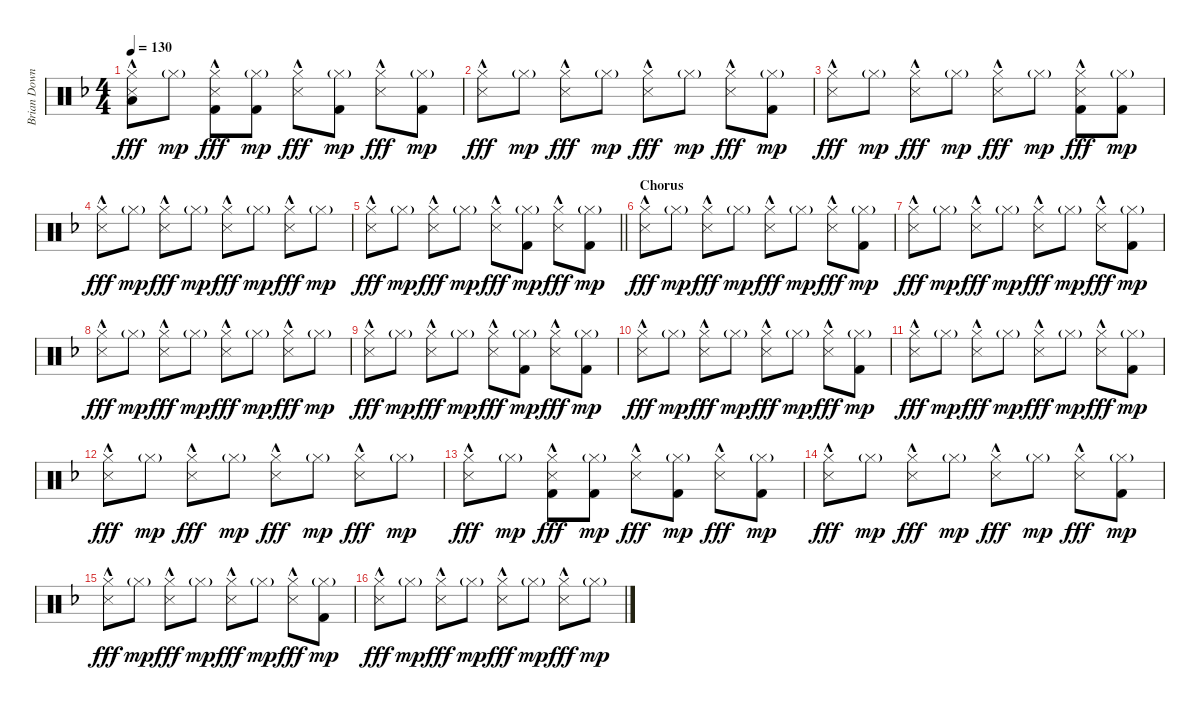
\track ("Brian Downey" "Brian Down") {instrument percussion}
\staff {score}
\articulation defaults
\ts (4 4)
\tempo 130
\clef neutral
\ks dminor
("Hi-Hat (closed)" "Low Tom (hit)" "Metronome (hit)"{hac}).8{dy fff} "Hi-Hat (closed)"{g}.8{dy mp} ("Hi-Hat (closed)" "Metronome (hit)"{hac} "Kick (hit) 2").8{dy fff} ("Hi-Hat (closed)"{g} "Kick (hit) 2").8{dy mp} ("Hi-Hat (closed)" "Metronome (hit)"{hac}).8{dy fff} ("Hi-Hat (closed)"{g} "Kick (hit) 2").8{dy mp} ("Hi-Hat (closed)" "Metronome (hit)"{hac}).8{dy fff} ("Hi-Hat (closed)"{g} "Kick (hit) 2").8{dy mp} |
("Hi-Hat (closed)" "Metronome (hit)"{hac}).8{dy fff} "Hi-Hat (closed)"{g}.8{dy mp} ("Hi-Hat (closed)" "Metronome (hit)"{hac}).8{dy fff} "Hi-Hat (closed)"{g}.8{dy mp} ("Hi-Hat (closed)" "Metronome (hit)"{hac}).8{dy fff} "Hi-Hat (closed)"{g}.8{dy mp} ("Hi-Hat (closed)" "Metronome (hit)"{hac}).8{dy fff} ("Hi-Hat (closed)"{g} "Kick (hit) 2").8{dy mp} |
("Hi-Hat (closed)" "Metronome (hit)"{hac}).8{dy fff} "Hi-Hat (closed)"{g}.8{dy mp} ("Hi-Hat (closed)" "Metronome (hit)"{hac}).8{dy fff} "Hi-Hat (closed)"{g}.8{dy mp} ("Hi-Hat (closed)" "Metronome (hit)"{hac}).8{dy fff} "Hi-Hat (closed)"{g}.8{dy mp} ("Hi-Hat (closed)" "Metronome (hit)"{hac} "Kick (hit) 2").8{dy fff} ("Hi-Hat (closed)"{g} "Kick (hit) 2").8{dy mp} |
("Hi-Hat (closed)" "Metronome (hit)"{hac}).8{dy fff} "Hi-Hat (closed)"{g}.8{dy mp} ("Hi-Hat (closed)" "Metronome (hit)"{hac}).8{dy fff} "Hi-Hat (closed)"{g}.8{dy mp} ("Hi-Hat (closed)" "Metronome (hit)"{hac}).8{dy fff} "Hi-Hat (closed)"{g}.8{dy mp} ("Hi-Hat (closed)" "Metronome (hit)"{hac}).8{dy fff} "Hi-Hat (closed)"{g}.8{dy mp} |
\barLineRight lightlight
("Hi-Hat (closed)" "Metronome (hit)"{hac}).8{dy fff} "Hi-Hat (closed)"{g}.8{dy mp} ("Hi-Hat (closed)" "Metronome (hit)"{hac}).8{dy fff} "Hi-Hat (closed)"{g}.8{dy mp} ("Hi-Hat (closed)" "Metronome (hit)"{hac}).8{dy fff} ("Hi-Hat (closed)"{g} "Kick (hit) 2").8{dy mp} ("Hi-Hat (closed)" "Metronome (hit)"{hac}).8{dy fff} ("Hi-Hat (closed)"{g} "Kick (hit) 2").8{dy mp} |
\section ("" "Chorus")
("Hi-Hat (closed)" "Metronome (hit)"{hac}).8{dy fff} "Hi-Hat (closed)"{g}.8{dy mp} ("Hi-Hat (closed)" "Metronome (hit)"{hac}).8{dy fff} "Hi-Hat (closed)"{g}.8{dy mp} ("Hi-Hat (closed)" "Metronome (hit)"{hac}).8{dy fff} "Hi-Hat (closed)"{g}.8{dy mp} ("Hi-Hat (closed)" "Metronome (hit)"{hac}).8{dy fff} ("Hi-Hat (closed)"{g} "Kick (hit) 2").8{dy mp} |
("Hi-Hat (closed)" "Metronome (hit)"{hac}).8{dy fff} "Hi-Hat (closed)"{g}.8{dy mp} ("Hi-Hat (closed)" "Metronome (hit)"{hac}).8{dy fff} "Hi-Hat (closed)"{g}.8{dy mp} ("Hi-Hat (closed)" "Metronome (hit)"{hac}).8{dy fff} "Hi-Hat (closed)"{g}.8{dy mp} ("Hi-Hat (closed)" "Metronome (hit)"{hac}).8{dy fff} ("Hi-Hat (closed)"{g} "Kick (hit) 2").8{dy mp} |
("Hi-Hat (closed)" "Metronome (hit)"{hac}).8{dy fff} "Hi-Hat (closed)"{g}.8{dy mp} ("Hi-Hat (closed)" "Metronome (hit)"{hac}).8{dy fff} "Hi-Hat (closed)"{g}.8{dy mp} ("Hi-Hat (closed)" "Metronome (hit)"{hac}).8{dy fff} "Hi-Hat (closed)"{g}.8{dy mp} ("Hi-Hat (closed)" "Metronome (hit)"{hac}).8{dy fff} "Hi-Hat (closed)"{g}.8{dy mp} |
("Hi-Hat (closed)" "Metronome (hit)"{hac}).8{dy fff} "Hi-Hat (closed)"{g}.8{dy mp} ("Hi-Hat (closed)" "Metronome (hit)"{hac}).8{dy fff} "Hi-Hat (closed)"{g}.8{dy mp} ("Hi-Hat (closed)" "Metronome (hit)"{hac}).8{dy fff} ("Hi-Hat (closed)"{g} "Kick (hit) 2").8{dy mp} ("Hi-Hat (closed)" "Metronome (hit)"{hac}).8{dy fff} ("Hi-Hat (closed)"{g} "Kick (hit) 2").8{dy mp} |
("Hi-Hat (closed)" "Metronome (hit)"{hac}).8{dy fff} "Hi-Hat (closed)"{g}.8{dy mp} ("Hi-Hat (closed)" "Metronome (hit)"{hac}).8{dy fff} "Hi-Hat (closed)"{g}.8{dy mp} ("Hi-Hat (closed)" "Metronome (hit)"{hac}).8{dy fff} "Hi-Hat (closed)"{g}.8{dy mp} ("Hi-Hat (closed)" "Metronome (hit)"{hac}).8{dy fff} ("Hi-Hat (closed)"{g} "Kick (hit) 2").8{dy mp} |
("Hi-Hat (closed)" "Metronome (hit)"{hac}).8{dy fff} "Hi-Hat (closed)"{g}.8{dy mp} ("Hi-Hat (closed)" "Metronome (hit)"{hac}).8{dy fff} "Hi-Hat (closed)"{g}.8{dy mp} ("Hi-Hat (closed)" "Metronome (hit)"{hac}).8{dy fff} "Hi-Hat (closed)"{g}.8{dy mp} ("Hi-Hat (closed)" "Metronome (hit)"{hac}).8{dy fff} ("Hi-Hat (closed)"{g} "Kick (hit) 2").8{dy mp} |
("Hi-Hat (closed)" "Metronome (hit)"{hac}).8{dy fff} "Hi-Hat (closed)"{g}.8{dy mp} ("Hi-Hat (closed)" "Metronome (hit)"{hac}).8{dy fff} "Hi-Hat (closed)"{g}.8{dy mp} ("Hi-Hat (closed)" "Metronome (hit)"{hac}).8{dy fff} "Hi-Hat (closed)"{g}.8{dy mp} ("Hi-Hat (closed)" "Metronome (hit)"{hac}).8{dy fff} "Hi-Hat (closed)"{g}.8{dy mp} |
("Hi-Hat (closed)" "Metronome (hit)"{hac}).8{dy fff} "Hi-Hat (closed)"{g}.8{dy mp} ("Hi-Hat (closed)" "Metronome (hit)"{hac} "Kick (hit) 2").8{dy fff} ("Hi-Hat (closed)"{g} "Kick (hit) 2").8{dy mp} ("Hi-Hat (closed)" "Metronome (hit)"{hac}).8{dy fff} ("Hi-Hat (closed)"{g} "Kick (hit) 2").8{dy mp} ("Hi-Hat (closed)" "Metronome (hit)"{hac}).8{dy fff} ("Hi-Hat (closed)"{g} "Kick (hit) 2").8{dy mp} |
("Hi-Hat (closed)" "Metronome (hit)"{hac}).8{dy fff} "Hi-Hat (closed)"{g}.8{dy mp} ("Hi-Hat (closed)" "Metronome (hit)"{hac}).8{dy fff} "Hi-Hat (closed)"{g}.8{dy mp} ("Hi-Hat (closed)" "Metronome (hit)"{hac}).8{dy fff} "Hi-Hat (closed)"{g}.8{dy mp} ("Hi-Hat (closed)" "Metronome (hit)"{hac}).8{dy fff} ("Hi-Hat (closed)"{g} "Kick (hit) 2").8{dy mp} |
("Hi-Hat (closed)" "Metronome (hit)"{hac}).8{dy fff} "Hi-Hat (closed)"{g}.8{dy mp} ("Hi-Hat (closed)" "Metronome (hit)"{hac}).8{dy fff} "Hi-Hat (closed)"{g}.8{dy mp} ("Hi-Hat (closed)" "Metronome (hit)"{hac}).8{dy fff} "Hi-Hat (closed)"{g}.8{dy mp} ("Hi-Hat (closed)" "Metronome (hit)"{hac}).8{dy fff} ("Hi-Hat (closed)"{g} "Kick (hit) 2").8{dy mp} |
("Hi-Hat (closed)" "Metronome (hit)"{hac}).8{dy fff} "Hi-Hat (closed)"{g}.8{dy mp} ("Hi-Hat (closed)" "Metronome (hit)"{hac}).8{dy fff} "Hi-Hat (closed)"{g}.8{dy mp} ("Hi-Hat (closed)" "Metronome (hit)"{hac}).8{dy fff} "Hi-Hat (closed)"{g}.8{dy mp} ("Hi-Hat (closed)" "Metronome (hit)"{hac}).8{dy fff} "Hi-Hat (closed)"{g}.8{dy mp}
